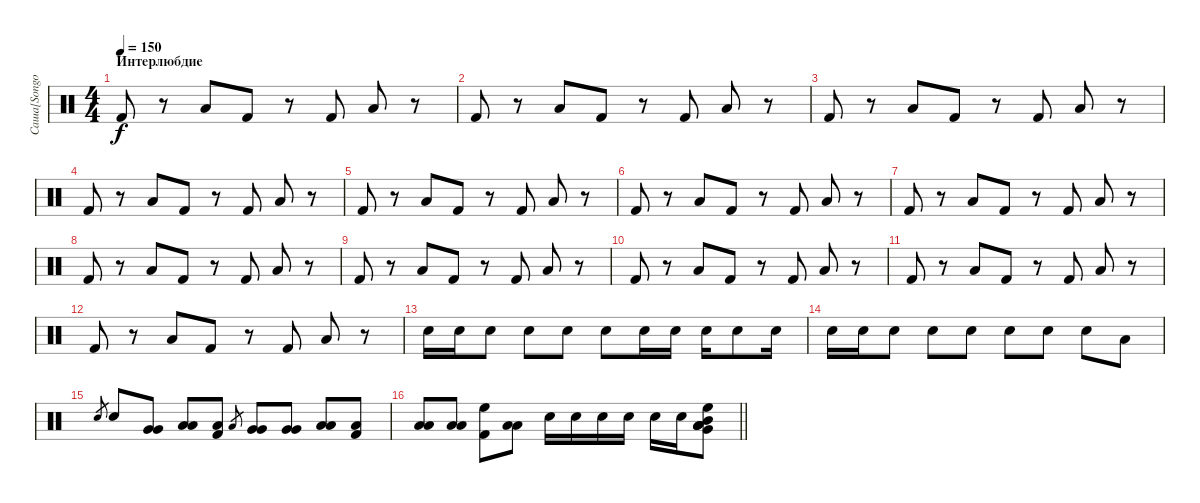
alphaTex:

\track ("Саша[Songo]" "Саша[Songo") {instrument percussion}
\staff {score}
\articulation defaults
\ts (4 4)
\section ("" "Интерлюбдие")
\tempo 150
\clef neutral
\ks c "Kick (hit) 2".8{dy f}
r.8 "Low Floor Tom (hit)".8 "Kick (hit) 2".8 r.8 "Kick (hit) 2".8 "Low Floor Tom (hit)".8 r.8 |
"Kick (hit) 2".8 r.8 "Low Floor Tom (hit)".8 "Kick (hit) 2".8 r.8 "Kick (hit) 2".8 "Low Floor Tom (hit)".8 r.8 |
"Kick (hit) 2".8 r.8 "Low Floor Tom (hit)".8 "Kick (hit) 2".8 r.8 "Kick (hit) 2".8 "Low Floor Tom (hit)".8 r.8 |
"Kick (hit) 2".8 r.8 "Low Floor Tom (hit)".8 "Kick (hit) 2".8 r.8 "Kick (hit) 2".8 "Low Floor Tom (hit)".8 r.8 |
"Kick (hit) 2".8 r.8 "Low Floor Tom (hit)".8 "Kick (hit) 2".8 r.8 "Kick (hit) 2".8 "Low Floor Tom (hit)".8 r.8 |
"Kick (hit) 2".8 r.8 "Low Floor Tom (hit)".8 "Kick (hit) 2".8 r.8 "Kick (hit) 2".8 "Low Floor Tom (hit)".8 r.8 |
"Kick (hit) 2".8 r.8 "Low Floor Tom (hit)".8 "Kick (hit) 2".8 r.8 "Kick (hit) 2".8 "Low Floor Tom (hit)".8 r.8 |
"Kick (hit) 2".8 r.8 "Low Floor Tom (hit)".8 "Kick (hit) 2".8 r.8 "Kick (hit) 2".8 "Low Floor Tom (hit)".8 r.8 |
"Kick (hit) 2".8 r.8 "Low Floor Tom (hit)".8 "Kick (hit) 2".8 r.8 "Kick (hit) 2".8 "Low Floor Tom (hit)".8 r.8 |
"Kick (hit) 2".8 r.8 "Low Floor Tom (hit)".8 "Kick (hit) 2".8 r.8 "Kick (hit) 2".8 "Low Floor Tom (hit)".8 r.8 |
"Kick (hit) 2".8 r.8 "Low Floor Tom (hit)".8 "Kick (hit) 2".8 r.8 "Kick (hit) 2".8 "Low Floor Tom (hit)".8 r.8 |
"Kick (hit) 2".8 r.8 "Low Floor Tom (hit)".8 "Kick (hit) 2".8 r.8 "Kick (hit) 2".8 "Low Floor Tom (hit)".8 r.8 |
"Electric Snare (hit)".16 "Electric Snare (hit)".16 "Electric Snare (hit)".8 "Electric Snare (hit)".8 "Electric Snare (hit)".8 "Electric Snare (hit)".8 "Electric Snare (hit)".16 "Electric Snare (hit)".16 "Electric Snare (hit)".16 "Electric Snare (hit)".8 "Electric Snare (hit)".16 |
"Electric Snare (hit)".16 "Electric Snare (hit)".16 "Electric Snare (hit)".8 "Electric Snare (hit)".8 "Electric Snare (hit)".8 "Electric Snare (hit)".8 "Electric Snare (hit)".8 "Electric Snare (hit)".8 "Low Tom (hit)".8 |
"Electric Snare (hit)".8{gr} "Electric Snare (hit)".8 ("Very Low Tom (hit)" "Very Low Tom (hit)").8{bd 60} ("Low Floor Tom (hit)" "Low Floor Tom (hit)").8{bd 60} ("Low Floor Tom (hit)" "Kick (hit) 2").8{bd 60} "Low Floor Tom (hit)".8{gr} ("Very Low Tom (hit)" "Very Low Tom (hit)").8{bd 60} ("Very Low Tom (hit)" "Very Low Tom (hit)").8{bd 60} ("Low Floor Tom (hit)" "Low Floor Tom (hit)").8{bd 60} ("Low Floor Tom (hit)" "Kick (hit) 2").8{bd 60} |
\barLineRight lightlight
("Low Tom (hit)" "Low Tom (hit)").8{bd 60} ("Low Floor Tom (hit)" "Low Floor Tom (hit)").8{bd 60} ("High Floor Tom (hit)" "Kick (hit) 2").8{bd 60} ("Low Tom (hit)" "Low Tom (hit)").8{bd 60} "Electric Snare (hit)".16 "Electric Snare (hit)".16 "Electric Snare (hit)".16 "Electric Snare (hit)".16 "Electric Snare (hit)".16 "Electric Snare (hit)".16 ("Mid Tom (hit)" "High Floor Tom (hit)" "Low Tom (hit)" "Low Floor Tom (hit)" "Low Floor Tom (hit)" "Very Low Tom (hit)").8{bd 60}
